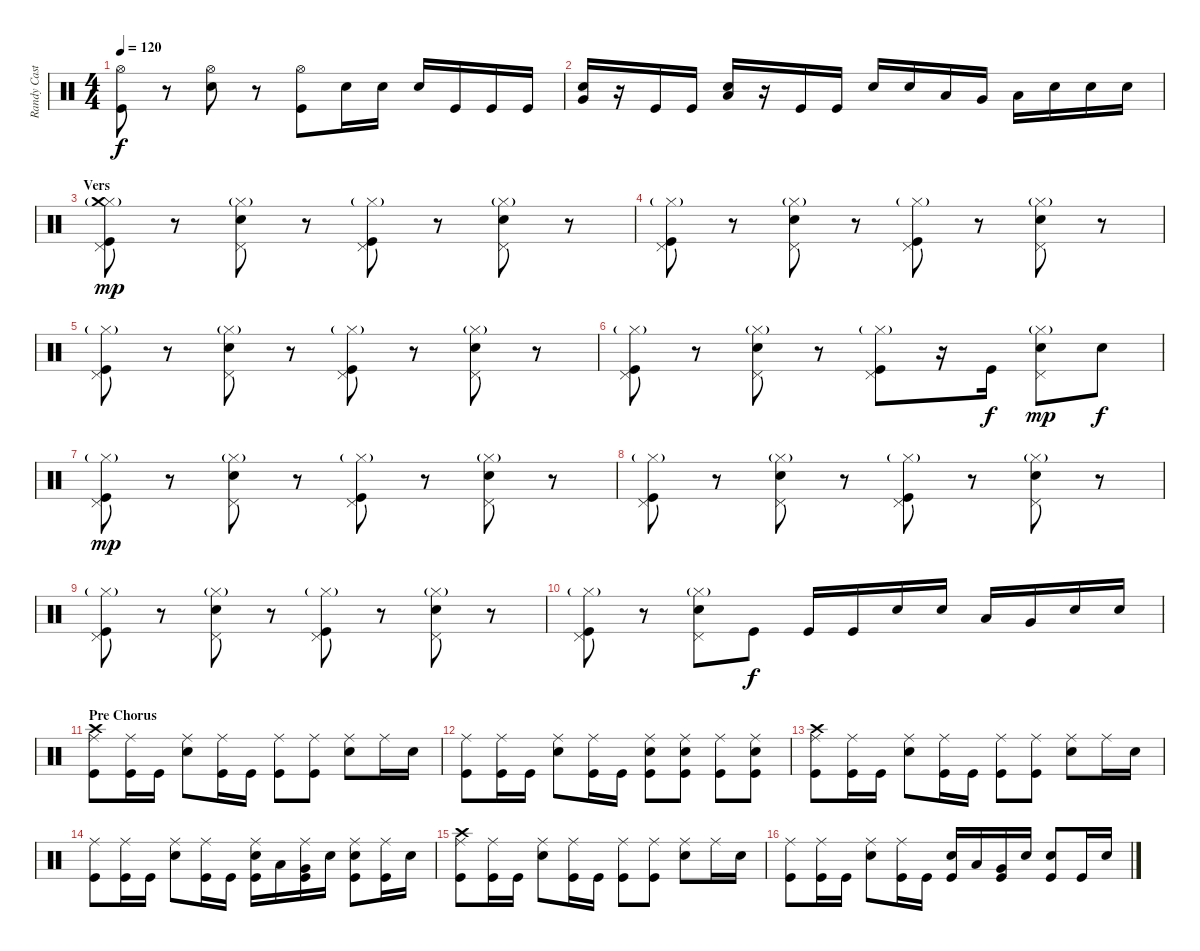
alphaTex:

\track ("Randy Castiello (Dums)" "Randy Cast") {instrument percussion}
\staff {score}
\articulation defaults
\ts (4 4)
\tempo 120
\clef neutral
\ks c
("Hi-Hat (open)" "Kick (hit)").8{dy f} r.8 ("Hi-Hat (open)" "Snare (hit) 2").8 r.8 ("Hi-Hat (open)" "Kick (hit)").8 "Snare (hit) 2".16 "Snare (hit) 2".16 "Snare (hit) 2".16 "Kick (hit)".16 "Kick (hit)".16 "Kick (hit)".16 |
("Very Low Tom (hit)" "Snare (hit) 2").16 r.16 "Kick (hit)".16 "Kick (hit)".16 ("Low Floor Tom (hit)" "Snare (hit) 2").16 r.16 "Kick (hit)".16 "Kick (hit)".16 "Snare (hit) 2".16 "Snare (hit) 2".16 "Low Tom (hit)".16 "Very Low Tom (hit)".16 "Low Floor Tom (hit)".16 "Snare (hit) 2".16 "Snare (hit) 2".16 "Snare (hit) 2".16 |
\section ("" "Vers")
("Pedal Hi-Hat (hit)" "Hi-Hat (closed)"{g} "Crash medium (hit)" "Kick (hit)").8{dy mp} r.8 ("Pedal Hi-Hat (hit)" "Hi-Hat (closed)"{g} "Snare (hit) 2").8 r.8 ("Pedal Hi-Hat (hit)" "Hi-Hat (closed)"{g} "Kick (hit)").8 r.8 ("Pedal Hi-Hat (hit)" "Hi-Hat (closed)"{g} "Snare (hit) 2").8 r.8 |
("Pedal Hi-Hat (hit)" "Hi-Hat (closed)"{g} "Kick (hit)").8 r.8 ("Pedal Hi-Hat (hit)" "Hi-Hat (closed)"{g} "Snare (hit) 2").8 r.8 ("Pedal Hi-Hat (hit)" "Hi-Hat (closed)"{g} "Kick (hit)").8 r.8 ("Pedal Hi-Hat (hit)" "Hi-Hat (closed)"{g} "Snare (hit) 2").8 r.8 |
("Pedal Hi-Hat (hit)" "Hi-Hat (closed)"{g} "Kick (hit)").8 r.8 ("Pedal Hi-Hat (hit)" "Hi-Hat (closed)"{g} "Snare (hit) 2").8 r.8 ("Pedal Hi-Hat (hit)" "Hi-Hat (closed)"{g} "Kick (hit)").8 r.8 ("Pedal Hi-Hat (hit)" "Hi-Hat (closed)"{g} "Snare (hit) 2").8 r.8 |
("Pedal Hi-Hat (hit)" "Hi-Hat (closed)"{g} "Kick (hit)").8 r.8 ("Pedal Hi-Hat (hit)" "Hi-Hat (closed)"{g} "Snare (hit) 2").8 r.8 ("Pedal Hi-Hat (hit)" "Hi-Hat (closed)"{g} "Kick (hit)").8 r.16 "Kick (hit)".16{dy f} ("Pedal Hi-Hat (hit)" "Hi-Hat (closed)"{g} "Snare (hit) 2").8{dy mp} "Snare (hit) 2".8{dy f} |
("Pedal Hi-Hat (hit)" "Hi-Hat (closed)"{g} "Kick (hit)").8{dy mp} r.8 ("Pedal Hi-Hat (hit)" "Hi-Hat (closed)"{g} "Snare (hit) 2").8 r.8 ("Pedal Hi-Hat (hit)" "Hi-Hat (closed)"{g} "Kick (hit)").8 r.8 ("Pedal Hi-Hat (hit)" "Hi-Hat (closed)"{g} "Snare (hit) 2").8 r.8 |
("Pedal Hi-Hat (hit)" "Hi-Hat (closed)"{g} "Kick (hit)").8 r.8 ("Pedal Hi-Hat (hit)" "Hi-Hat (closed)"{g} "Snare (hit) 2").8 r.8 ("Pedal Hi-Hat (hit)" "Hi-Hat (closed)"{g} "Kick (hit)").8 r.8 ("Pedal Hi-Hat (hit)" "Hi-Hat (closed)"{g} "Snare (hit) 2").8 r.8 |
("Pedal Hi-Hat (hit)" "Hi-Hat (closed)"{g} "Kick (hit)").8 r.8 ("Pedal Hi-Hat (hit)" "Hi-Hat (closed)"{g} "Snare (hit) 2").8 r.8 ("Pedal Hi-Hat (hit)" "Hi-Hat (closed)"{g} "Kick (hit)").8 r.8 ("Pedal Hi-Hat (hit)" "Hi-Hat (closed)"{g} "Snare (hit) 2").8 r.8 |
("Pedal Hi-Hat (hit)" "Hi-Hat (closed)"{g} "Kick (hit)").8 r.8 ("Pedal Hi-Hat (hit)" "Hi-Hat (closed)"{g} "Snare (hit) 2").8 "Kick (hit)".8{dy f} "Kick (hit)".16 "Kick (hit)".16 "Snare (hit) 2".16 "Snare (hit) 2".16 "Low Tom (hit)".16 "Very Low Tom (hit)".16 "Snare (hit) 2".16 "Snare (hit) 2".16 |
\section ("" "Pre Chorus")
("Ride (middle)" "Crash high (hit)" "Kick (hit)").8 ("Ride (middle)" "Kick (hit)").16 "Kick (hit)".16 ("Ride (middle)" "Snare (hit) 2").8 ("Ride (middle)" "Kick (hit)").16 "Kick (hit)".16 ("Ride (middle)" "Kick (hit)").8 ("Ride (middle)" "Kick (hit)").8 ("Ride (middle)" "Snare (hit) 2").8 "Ride (middle)".16 "Snare (hit) 2".16 |
("Ride (middle)" "Kick (hit)").8 ("Ride (middle)" "Kick (hit)").16 "Kick (hit)".16 ("Ride (middle)" "Snare (hit) 2").8 ("Ride (middle)" "Kick (hit)").16 "Kick (hit)".16 ("Ride (middle)" "Snare (hit) 2" "Kick (hit)").8 ("Ride (middle)" "Snare (hit) 2" "Kick (hit)").8 ("Ride (middle)" "Kick (hit)").8 ("Ride (middle)" "Snare (hit) 2" "Kick (hit)").8 |
("Ride (middle)" "Crash high (hit)" "Kick (hit)").8 ("Ride (middle)" "Kick (hit)").16 "Kick (hit)".16 ("Ride (middle)" "Snare (hit) 2").8 ("Ride (middle)" "Kick (hit)").16 "Kick (hit)".16 ("Ride (middle)" "Kick (hit)").8 ("Ride (middle)" "Kick (hit)").8 ("Ride (middle)" "Snare (hit) 2").8 "Ride (middle)".16 "Snare (hit) 2".16 |
("Ride (middle)" "Kick (hit)").8 ("Ride (middle)" "Kick (hit)").16 "Kick (hit)".16 ("Ride (middle)" "Snare (hit) 2").8 ("Ride (middle)" "Kick (hit)").16 "Kick (hit)".16 ("Ride (middle)" "Snare (hit) 2" "Kick (hit)").16 "Low Tom (hit)".16 ("Ride (middle)" "Very Low Tom (hit)" "Kick (hit)").16 "Snare (hit) 2".16 ("Ride (middle)" "Snare (hit) 2" "Kick (hit)").8 ("Ride (middle)" "Kick (hit)").16 "Snare (hit) 2".16 |
("Ride (middle)" "Crash high (hit)" "Kick (hit)").8 ("Ride (middle)" "Kick (hit)").16 "Kick (hit)".16 ("Ride (middle)" "Snare (hit) 2").8 ("Ride (middle)" "Kick (hit)").16 "Kick (hit)".16 ("Ride (middle)" "Kick (hit)").8 ("Ride (middle)" "Kick (hit)").8 ("Ride (middle)" "Snare (hit) 2").8 "Ride (middle)".16 "Snare (hit) 2".16 |
("Ride (middle)" "Kick (hit)").8 ("Ride (middle)" "Kick (hit)").16 "Kick (hit)".16 ("Ride (middle)" "Snare (hit) 2").8 ("Ride (middle)" "Kick (hit)").16 "Kick (hit)".16 ("Snare (hit) 2" "Kick (hit)").16 "Low Tom (hit)".16 ("Very Low Tom (hit)" "Kick (hit)").16 "Snare (hit) 2".16 ("Snare (hit) 2" "Kick (hit)").8 "Kick (hit)".16 "Snare (hit) 2".16
